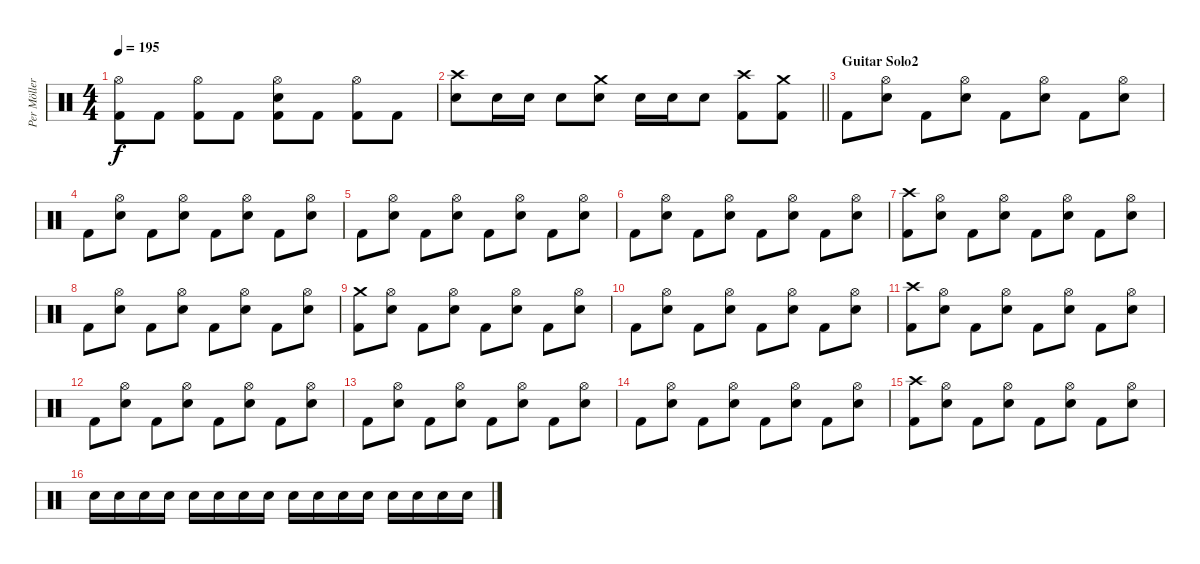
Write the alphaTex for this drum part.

\track ("Per Möller Jensen" "Per Möller") {instrument percussion}
\staff {score}
\articulation defaults
\ts (4 4)
\tempo 195
\clef neutral
\ks c
("Hi-Hat (open)" "Kick (hit) 2").8{dy f} "Kick (hit) 2".8 ("Hi-Hat (open)" "Kick (hit) 2").8 "Kick (hit) 2".8 ("Hi-Hat (open)" "Snare (hit) 2" "Kick (hit) 2").8 "Kick (hit) 2".8 ("Hi-Hat (open)" "Kick (hit) 2").8 "Kick (hit) 2".8 |
\barLineRight lightlight
("Crash high (hit)" "Snare (hit) 2").8 "Snare (hit) 2".16 "Snare (hit) 2".16 "Snare (hit) 2".8 ("Crash medium (hit)" "Snare (hit) 2").8 "Snare (hit) 2".16 "Snare (hit) 2".16 "Snare (hit) 2".8 ("Crash high (hit)" "Kick (hit) 2").8 ("Crash medium (hit)" "Kick (hit) 2").8 |
\section ("" "Guitar Solo2")
"Kick (hit) 2".8 ("Hi-Hat (open)" "Snare (hit) 2").8 "Kick (hit) 2".8 ("Hi-Hat (open)" "Snare (hit) 2").8 "Kick (hit) 2".8 ("Hi-Hat (open)" "Snare (hit) 2").8 "Kick (hit) 2".8 ("Hi-Hat (open)" "Snare (hit) 2").8 |
"Kick (hit) 2".8 ("Hi-Hat (open)" "Snare (hit) 2").8 "Kick (hit) 2".8 ("Hi-Hat (open)" "Snare (hit) 2").8 "Kick (hit) 2".8 ("Hi-Hat (open)" "Snare (hit) 2").8 "Kick (hit) 2".8 ("Hi-Hat (open)" "Snare (hit) 2").8 |
"Kick (hit) 2".8 ("Hi-Hat (open)" "Snare (hit) 2").8 "Kick (hit) 2".8 ("Hi-Hat (open)" "Snare (hit) 2").8 "Kick (hit) 2".8 ("Hi-Hat (open)" "Snare (hit) 2").8 "Kick (hit) 2".8 ("Hi-Hat (open)" "Snare (hit) 2").8 |
"Kick (hit) 2".8 ("Hi-Hat (open)" "Snare (hit) 2").8 "Kick (hit) 2".8 ("Hi-Hat (open)" "Snare (hit) 2").8 "Kick (hit) 2".8 ("Hi-Hat (open)" "Snare (hit) 2").8 "Kick (hit) 2".8 ("Hi-Hat (open)" "Snare (hit) 2").8 |
("Crash high (hit)" "Kick (hit) 2").8 ("Hi-Hat (open)" "Snare (hit) 2").8 "Kick (hit) 2".8 ("Hi-Hat (open)" "Snare (hit) 2").8 "Kick (hit) 2".8 ("Hi-Hat (open)" "Snare (hit) 2").8 "Kick (hit) 2".8 ("Hi-Hat (open)" "Snare (hit) 2").8 |
"Kick (hit) 2".8 ("Hi-Hat (open)" "Snare (hit) 2").8 "Kick (hit) 2".8 ("Hi-Hat (open)" "Snare (hit) 2").8 "Kick (hit) 2".8 ("Hi-Hat (open)" "Snare (hit) 2").8 "Kick (hit) 2".8 ("Hi-Hat (open)" "Snare (hit) 2").8 |
("Crash medium (hit)" "Kick (hit) 2").8 ("Hi-Hat (open)" "Snare (hit) 2").8 "Kick (hit) 2".8 ("Hi-Hat (open)" "Snare (hit) 2").8 "Kick (hit) 2".8 ("Hi-Hat (open)" "Snare (hit) 2").8 "Kick (hit) 2".8 ("Hi-Hat (open)" "Snare (hit) 2").8 |
"Kick (hit) 2".8 ("Hi-Hat (open)" "Snare (hit) 2").8 "Kick (hit) 2".8 ("Hi-Hat (open)" "Snare (hit) 2").8 "Kick (hit) 2".8 ("Hi-Hat (open)" "Snare (hit) 2").8 "Kick (hit) 2".8 ("Hi-Hat (open)" "Snare (hit) 2").8 |
("Crash high (hit)" "Kick (hit) 2").8 ("Hi-Hat (open)" "Snare (hit) 2").8 "Kick (hit) 2".8 ("Hi-Hat (open)" "Snare (hit) 2").8 "Kick (hit) 2".8 ("Hi-Hat (open)" "Snare (hit) 2").8 "Kick (hit) 2".8 ("Hi-Hat (open)" "Snare (hit) 2").8 |
"Kick (hit) 2".8 ("Hi-Hat (open)" "Snare (hit) 2").8 "Kick (hit) 2".8 ("Hi-Hat (open)" "Snare (hit) 2").8 "Kick (hit) 2".8 ("Hi-Hat (open)" "Snare (hit) 2").8 "Kick (hit) 2".8 ("Hi-Hat (open)" "Snare (hit) 2").8 |
"Kick (hit) 2".8 ("Hi-Hat (open)" "Snare (hit) 2").8 "Kick (hit) 2".8 ("Hi-Hat (open)" "Snare (hit) 2").8 "Kick (hit) 2".8 ("Hi-Hat (open)" "Snare (hit) 2").8 "Kick (hit) 2".8 ("Hi-Hat (open)" "Snare (hit) 2").8 |
"Kick (hit) 2".8 ("Hi-Hat (open)" "Snare (hit) 2").8 "Kick (hit) 2".8 ("Hi-Hat (open)" "Snare (hit) 2").8 "Kick (hit) 2".8 ("Hi-Hat (open)" "Snare (hit) 2").8 "Kick (hit) 2".8 ("Hi-Hat (open)" "Snare (hit) 2").8 |
("Crash high (hit)" "Kick (hit) 2").8 ("Hi-Hat (open)" "Snare (hit) 2").8 "Kick (hit) 2".8 ("Hi-Hat (open)" "Snare (hit) 2").8 "Kick (hit) 2".8 ("Hi-Hat (open)" "Snare (hit) 2").8 "Kick (hit) 2".8 ("Hi-Hat (open)" "Snare (hit) 2").8 |
"Snare (hit) 2".16 "Snare (hit) 2".16 "Snare (hit) 2".16 "Snare (hit) 2".16 "Snare (hit) 2".16 "Snare (hit) 2".16 "Snare (hit) 2".16 "Snare (hit) 2".16 "Snare (hit) 2".16 "Snare (hit) 2".16 "Snare (hit) 2".16 "Snare (hit) 2".16 "Snare (hit) 2".16 "Snare (hit) 2".16 "Snare (hit) 2".16 "Snare (hit) 2".16
